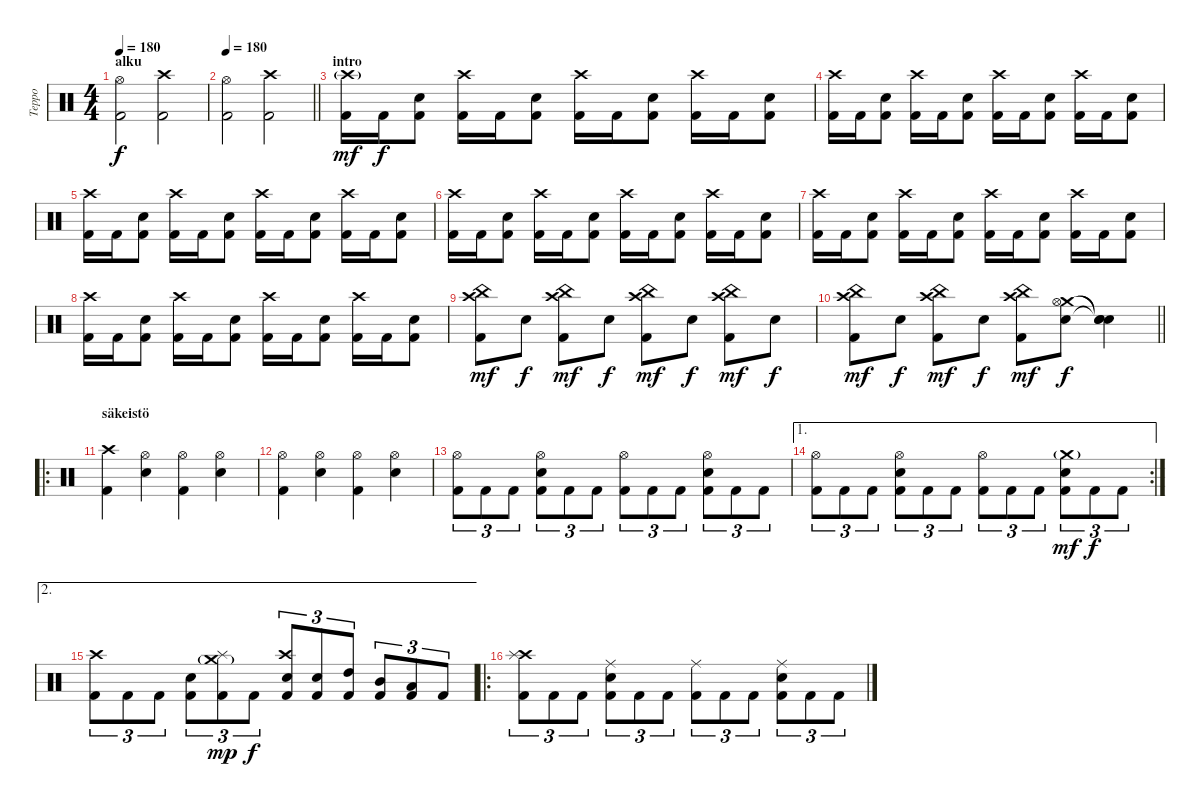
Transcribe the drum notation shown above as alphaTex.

\track ("Teppo" "Teppo") {instrument percussion}
\staff {score}
\articulation defaults
\ts (4 4)
\section ("" "alku")
\tempo 180
\clef neutral
\ks c
("Hi-Hat (open)" "Kick (hit) 2").2{dy f} ("Crash high (hit)" "Kick (hit) 2").2 |
\tempo 180
\barLineRight lightlight
("Hi-Hat (open)" "Kick (hit) 2").2 ("Crash high (hit)" "Kick (hit) 2").2 |
\section ("" "intro")
("Crash high (hit)"{g} "Kick (hit) 2").16{dy mf} "Kick (hit) 2".16{dy f} ("Electric Snare (hit)" "Kick (hit) 2").8 ("Crash high (hit)" "Kick (hit) 2").16 "Kick (hit) 2".16 ("Electric Snare (hit)" "Kick (hit) 2").8 ("Crash high (hit)" "Kick (hit) 2").16 "Kick (hit) 2".16 ("Electric Snare (hit)" "Kick (hit) 2").8 ("Crash high (hit)" "Kick (hit) 2").16 "Kick (hit) 2".16 ("Electric Snare (hit)" "Kick (hit) 2").8 |
("Crash high (hit)" "Kick (hit) 2").16 "Kick (hit) 2".16 ("Electric Snare (hit)" "Kick (hit) 2").8 ("Crash high (hit)" "Kick (hit) 2").16 "Kick (hit) 2".16 ("Electric Snare (hit)" "Kick (hit) 2").8 ("Crash high (hit)" "Kick (hit) 2").16 "Kick (hit) 2".16 ("Electric Snare (hit)" "Kick (hit) 2").8 ("Crash high (hit)" "Kick (hit) 2").16 "Kick (hit) 2".16 ("Electric Snare (hit)" "Kick (hit) 2").8 |
("Crash high (hit)" "Kick (hit) 2").16 "Kick (hit) 2".16 ("Electric Snare (hit)" "Kick (hit) 2").8 ("Crash high (hit)" "Kick (hit) 2").16 "Kick (hit) 2".16 ("Electric Snare (hit)" "Kick (hit) 2").8 ("Crash high (hit)" "Kick (hit) 2").16 "Kick (hit) 2".16 ("Electric Snare (hit)" "Kick (hit) 2").8 ("Crash high (hit)" "Kick (hit) 2").16 "Kick (hit) 2".16 ("Electric Snare (hit)" "Kick (hit) 2").8 |
("Crash high (hit)" "Kick (hit) 2").16 "Kick (hit) 2".16 ("Electric Snare (hit)" "Kick (hit) 2").8 ("Crash high (hit)" "Kick (hit) 2").16 "Kick (hit) 2".16 ("Electric Snare (hit)" "Kick (hit) 2").8 ("Crash high (hit)" "Kick (hit) 2").16 "Kick (hit) 2".16 ("Electric Snare (hit)" "Kick (hit) 2").8 ("Crash high (hit)" "Kick (hit) 2").16 "Kick (hit) 2".16 ("Electric Snare (hit)" "Kick (hit) 2").8 |
("Crash high (hit)" "Kick (hit) 2").16 "Kick (hit) 2".16 ("Electric Snare (hit)" "Kick (hit) 2").8 ("Crash high (hit)" "Kick (hit) 2").16 "Kick (hit) 2".16 ("Electric Snare (hit)" "Kick (hit) 2").8 ("Crash high (hit)" "Kick (hit) 2").16 "Kick (hit) 2".16 ("Electric Snare (hit)" "Kick (hit) 2").8 ("Crash high (hit)" "Kick (hit) 2").16 "Kick (hit) 2".16 ("Electric Snare (hit)" "Kick (hit) 2").8 |
("Crash high (hit)" "Kick (hit) 2").16 "Kick (hit) 2".16 ("Electric Snare (hit)" "Kick (hit) 2").8 ("Crash high (hit)" "Kick (hit) 2").16 "Kick (hit) 2".16 ("Electric Snare (hit)" "Kick (hit) 2").8 ("Crash high (hit)" "Kick (hit) 2").16 "Kick (hit) 2".16 ("Electric Snare (hit)" "Kick (hit) 2").8 ("Crash high (hit)" "Kick (hit) 2").16 "Kick (hit) 2".16 ("Electric Snare (hit)" "Kick (hit) 2").8 |
("China (hit)" "Crash high (hit)" "Kick (hit) 2").8{dy mf} "Electric Snare (hit)".8{dy f} ("China (hit)" "Crash high (hit)" "Kick (hit) 2").8{dy mf} "Electric Snare (hit)".8{dy f} ("China (hit)" "Crash high (hit)" "Kick (hit) 2").8{dy mf} "Electric Snare (hit)".8{dy f} ("China (hit)" "Crash high (hit)" "Kick (hit) 2").8{dy mf} "Electric Snare (hit)".8{dy f} |
\barLineRight lightlight
("China (hit)" "Crash high (hit)" "Kick (hit) 2").8{dy mf} "Electric Snare (hit)".8{dy f} ("China (hit)" "Crash high (hit)" "Kick (hit) 2").8{dy mf} "Electric Snare (hit)".8{dy f} ("China (hit)" "Crash high (hit)" "Kick (hit) 2").8{dy mf} ("Crash medium (hit)" "Hi-Hat (open)" "Electric Snare (hit)").8{dy f} ("Snare (hit)"{t} "Snare (hit)"{t} "Snare (hit)"{t}).4 |
\ro
\section ("" "säkeistö")
("Crash high (hit)" "Kick (hit) 2").4 ("Hi-Hat (open)" "Electric Snare (hit)").4 ("Hi-Hat (open)" "Kick (hit) 2").4 ("Hi-Hat (open)" "Electric Snare (hit)").4 |
("Hi-Hat (open)" "Kick (hit) 2").4 ("Hi-Hat (open)" "Electric Snare (hit)").4 ("Hi-Hat (open)" "Kick (hit) 2").4 ("Hi-Hat (open)" "Electric Snare (hit)").4 |
("Hi-Hat (open)" "Kick (hit) 2").8{tu (3 2)} "Kick (hit) 2".8{tu (3 2)} "Kick (hit) 2".8{tu (3 2)} ("Hi-Hat (open)" "Electric Snare (hit)" "Kick (hit) 2").8{tu (3 2)} "Kick (hit) 2".8{tu (3 2)} "Kick (hit) 2".8{tu (3 2)} ("Hi-Hat (open)" "Kick (hit) 2").8{tu (3 2)} "Kick (hit) 2".8{tu (3 2)} "Kick (hit) 2".8{tu (3 2)} ("Hi-Hat (open)" "Electric Snare (hit)" "Kick (hit) 2").8{tu (3 2)} "Kick (hit) 2".8{tu (3 2)} "Kick (hit) 2".8{tu (3 2)} |
\ae 1
\rc 2
("Hi-Hat (open)" "Kick (hit) 2").8{tu (3 2)} "Kick (hit) 2".8{tu (3 2)} "Kick (hit) 2".8{tu (3 2)} ("Hi-Hat (open)" "Electric Snare (hit)" "Kick (hit) 2").8{tu (3 2)} "Kick (hit) 2".8{tu (3 2)} "Kick (hit) 2".8{tu (3 2)} ("Hi-Hat (open)" "Kick (hit) 2").8{tu (3 2)} "Kick (hit) 2".8{tu (3 2)} "Kick (hit) 2".8{tu (3 2)} ("Crash medium (hit)"{g} "Electric Snare (hit)" "Kick (hit) 2").8{tu (3 2) dy mf} "Kick (hit) 2".8{tu (3 2) dy f} "Kick (hit) 2".8{tu (3 2)} |
\ae 2
("Crash high (hit)" "Kick (hit) 2").8{tu (3 2)} "Kick (hit) 2".8{tu (3 2)} "Kick (hit) 2".8{tu (3 2)} ("Electric Snare (hit)" "Kick (hit) 2").8{tu (3 2)} ("Crash medium (hit)"{g} "Splash (hit)" "Kick (hit) 2").8{tu (3 2) dy mp} "Kick (hit) 2".8{tu (3 2) dy f} ("Crash high (hit)" "Electric Snare (hit)" "Kick (hit) 2").8{tu (3 2)} ("Electric Snare (hit)" "Kick (hit) 2").8{tu (3 2)} ("High Tom (hit)" "Kick (hit) 2").8{tu (3 2)} ("Mid Tom (hit)" "Kick (hit) 2").8{tu (3 2)} ("Low Tom (hit)" "Kick (hit) 2").8{tu (3 2)} "Kick (hit) 2".8{tu (3 2)} |
\ro
("Crash high (hit)" "Splash (hit)" "Kick (hit) 2").8{tu (3 2)} "Kick (hit) 2".8{tu (3 2)} "Kick (hit) 2".8{tu (3 2)} ("Ride (middle)" "Electric Snare (hit)" "Kick (hit) 2").8{tu (3 2)} "Kick (hit) 2".8{tu (3 2)} "Kick (hit) 2".8{tu (3 2)} ("Ride (middle)" "Kick (hit) 2").8{tu (3 2)} "Kick (hit) 2".8{tu (3 2)} "Kick (hit) 2".8{tu (3 2)} ("Ride (middle)" "Electric Snare (hit)" "Kick (hit) 2").8{tu (3 2)} "Kick (hit) 2".8{tu (3 2)} "Kick (hit) 2".8{tu (3 2)}
